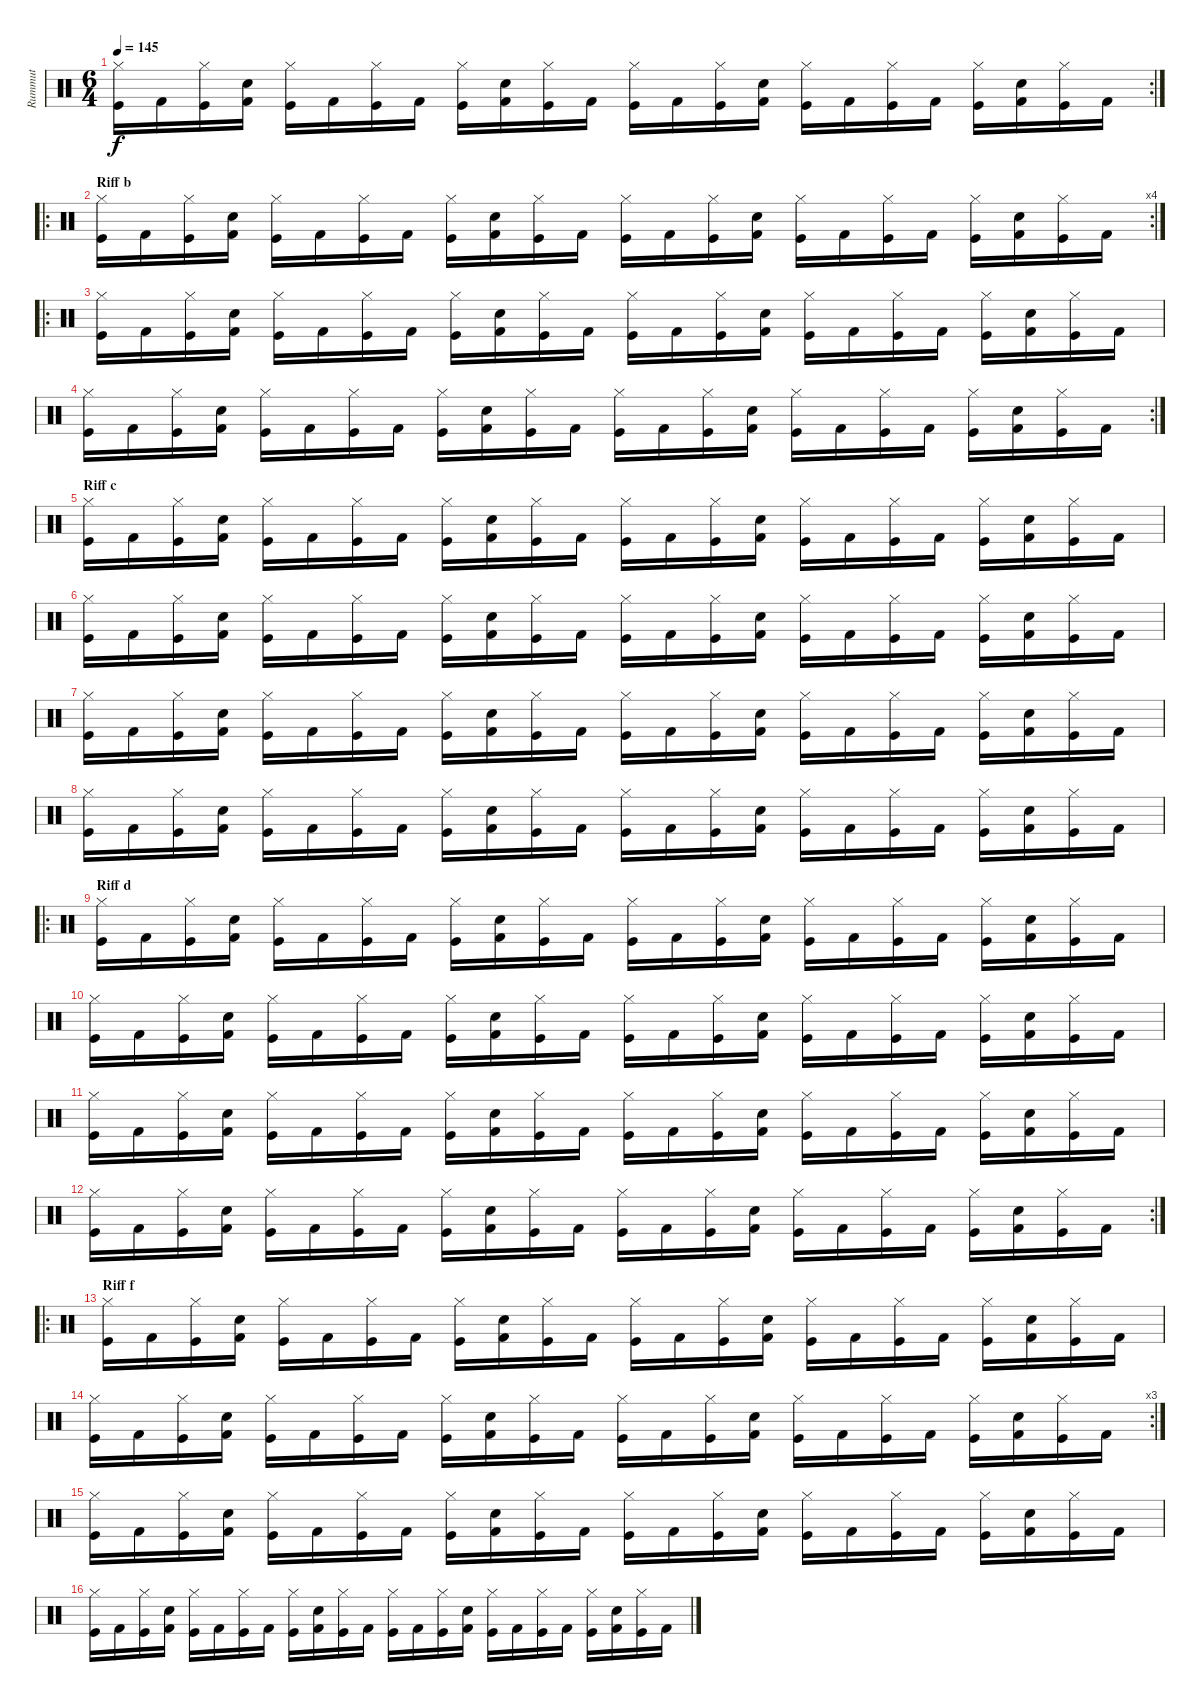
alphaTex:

\track ("Rummut" "Rummut") {instrument percussion}
\staff {score}
\articulation defaults
\rc 2
\ts (6 4)
\tempo 145
\clef neutral
\ks c
("Hi-Hat (closed)" "Kick (hit)").16{dy f} "Kick (hit) 2".16 ("Hi-Hat (closed)" "Kick (hit)").16 ("Snare (hit) 2" "Kick (hit) 2").16 ("Hi-Hat (closed)" "Kick (hit)").16 "Kick (hit) 2".16 ("Hi-Hat (closed)" "Kick (hit)").16 "Kick (hit) 2".16 ("Hi-Hat (closed)" "Kick (hit)").16 ("Snare (hit) 2" "Kick (hit) 2").16 ("Hi-Hat (closed)" "Kick (hit)").16 "Kick (hit) 2".16 ("Hi-Hat (closed)" "Kick (hit)").16 "Kick (hit) 2".16 ("Hi-Hat (closed)" "Kick (hit)").16 ("Snare (hit) 2" "Kick (hit) 2").16 ("Hi-Hat (closed)" "Kick (hit)").16 "Kick (hit) 2".16 ("Hi-Hat (closed)" "Kick (hit)").16 "Kick (hit) 2".16 ("Hi-Hat (closed)" "Kick (hit)").16 ("Snare (hit) 2" "Kick (hit) 2").16 ("Hi-Hat (closed)" "Kick (hit)").16 "Kick (hit) 2".16 |
\ro
\rc 4
\section ("" "Riff b")
("Hi-Hat (closed)" "Kick (hit)").16 "Kick (hit) 2".16 ("Hi-Hat (closed)" "Kick (hit)").16 ("Snare (hit) 2" "Kick (hit) 2").16 ("Hi-Hat (closed)" "Kick (hit)").16 "Kick (hit) 2".16 ("Hi-Hat (closed)" "Kick (hit)").16 "Kick (hit) 2".16 ("Hi-Hat (closed)" "Kick (hit)").16 ("Snare (hit) 2" "Kick (hit) 2").16 ("Hi-Hat (closed)" "Kick (hit)").16 "Kick (hit) 2".16 ("Hi-Hat (closed)" "Kick (hit)").16 "Kick (hit) 2".16 ("Hi-Hat (closed)" "Kick (hit)").16 ("Snare (hit) 2" "Kick (hit) 2").16 ("Hi-Hat (closed)" "Kick (hit)").16 "Kick (hit) 2".16 ("Hi-Hat (closed)" "Kick (hit)").16 "Kick (hit) 2".16 ("Hi-Hat (closed)" "Kick (hit)").16 ("Snare (hit) 2" "Kick (hit) 2").16 ("Hi-Hat (closed)" "Kick (hit)").16 "Kick (hit) 2".16 |
\ro
("Hi-Hat (closed)" "Kick (hit)").16 "Kick (hit) 2".16 ("Hi-Hat (closed)" "Kick (hit)").16 ("Snare (hit) 2" "Kick (hit) 2").16 ("Hi-Hat (closed)" "Kick (hit)").16 "Kick (hit) 2".16 ("Hi-Hat (closed)" "Kick (hit)").16 "Kick (hit) 2".16 ("Hi-Hat (closed)" "Kick (hit)").16 ("Snare (hit) 2" "Kick (hit) 2").16 ("Hi-Hat (closed)" "Kick (hit)").16 "Kick (hit) 2".16 ("Hi-Hat (closed)" "Kick (hit)").16 "Kick (hit) 2".16 ("Hi-Hat (closed)" "Kick (hit)").16 ("Snare (hit) 2" "Kick (hit) 2").16 ("Hi-Hat (closed)" "Kick (hit)").16 "Kick (hit) 2".16 ("Hi-Hat (closed)" "Kick (hit)").16 "Kick (hit) 2".16 ("Hi-Hat (closed)" "Kick (hit)").16 ("Snare (hit) 2" "Kick (hit) 2").16 ("Hi-Hat (closed)" "Kick (hit)").16 "Kick (hit) 2".16 |
\rc 2
("Hi-Hat (closed)" "Kick (hit)").16 "Kick (hit) 2".16 ("Hi-Hat (closed)" "Kick (hit)").16 ("Snare (hit) 2" "Kick (hit) 2").16 ("Hi-Hat (closed)" "Kick (hit)").16 "Kick (hit) 2".16 ("Hi-Hat (closed)" "Kick (hit)").16 "Kick (hit) 2".16 ("Hi-Hat (closed)" "Kick (hit)").16 ("Snare (hit) 2" "Kick (hit) 2").16 ("Hi-Hat (closed)" "Kick (hit)").16 "Kick (hit) 2".16 ("Hi-Hat (closed)" "Kick (hit)").16 "Kick (hit) 2".16 ("Hi-Hat (closed)" "Kick (hit)").16 ("Snare (hit) 2" "Kick (hit) 2").16 ("Hi-Hat (closed)" "Kick (hit)").16 "Kick (hit) 2".16 ("Hi-Hat (closed)" "Kick (hit)").16 "Kick (hit) 2".16 ("Hi-Hat (closed)" "Kick (hit)").16 ("Snare (hit) 2" "Kick (hit) 2").16 ("Hi-Hat (closed)" "Kick (hit)").16 "Kick (hit) 2".16 |
\section ("" "Riff c")
("Hi-Hat (closed)" "Kick (hit)").16 "Kick (hit) 2".16 ("Hi-Hat (closed)" "Kick (hit)").16 ("Snare (hit) 2" "Kick (hit) 2").16 ("Hi-Hat (closed)" "Kick (hit)").16 "Kick (hit) 2".16 ("Hi-Hat (closed)" "Kick (hit)").16 "Kick (hit) 2".16 ("Hi-Hat (closed)" "Kick (hit)").16 ("Snare (hit) 2" "Kick (hit) 2").16 ("Hi-Hat (closed)" "Kick (hit)").16 "Kick (hit) 2".16 ("Hi-Hat (closed)" "Kick (hit)").16 "Kick (hit) 2".16 ("Hi-Hat (closed)" "Kick (hit)").16 ("Snare (hit) 2" "Kick (hit) 2").16 ("Hi-Hat (closed)" "Kick (hit)").16 "Kick (hit) 2".16 ("Hi-Hat (closed)" "Kick (hit)").16 "Kick (hit) 2".16 ("Hi-Hat (closed)" "Kick (hit)").16 ("Snare (hit) 2" "Kick (hit) 2").16 ("Hi-Hat (closed)" "Kick (hit)").16 "Kick (hit) 2".16 |
("Hi-Hat (closed)" "Kick (hit)").16 "Kick (hit) 2".16 ("Hi-Hat (closed)" "Kick (hit)").16 ("Snare (hit) 2" "Kick (hit) 2").16 ("Hi-Hat (closed)" "Kick (hit)").16 "Kick (hit) 2".16 ("Hi-Hat (closed)" "Kick (hit)").16 "Kick (hit) 2".16 ("Hi-Hat (closed)" "Kick (hit)").16 ("Snare (hit) 2" "Kick (hit) 2").16 ("Hi-Hat (closed)" "Kick (hit)").16 "Kick (hit) 2".16 ("Hi-Hat (closed)" "Kick (hit)").16 "Kick (hit) 2".16 ("Hi-Hat (closed)" "Kick (hit)").16 ("Snare (hit) 2" "Kick (hit) 2").16 ("Hi-Hat (closed)" "Kick (hit)").16 "Kick (hit) 2".16 ("Hi-Hat (closed)" "Kick (hit)").16 "Kick (hit) 2".16 ("Hi-Hat (closed)" "Kick (hit)").16 ("Snare (hit) 2" "Kick (hit) 2").16 ("Hi-Hat (closed)" "Kick (hit)").16 "Kick (hit) 2".16 |
("Hi-Hat (closed)" "Kick (hit)").16 "Kick (hit) 2".16 ("Hi-Hat (closed)" "Kick (hit)").16 ("Snare (hit) 2" "Kick (hit) 2").16 ("Hi-Hat (closed)" "Kick (hit)").16 "Kick (hit) 2".16 ("Hi-Hat (closed)" "Kick (hit)").16 "Kick (hit) 2".16 ("Hi-Hat (closed)" "Kick (hit)").16 ("Snare (hit) 2" "Kick (hit) 2").16 ("Hi-Hat (closed)" "Kick (hit)").16 "Kick (hit) 2".16 ("Hi-Hat (closed)" "Kick (hit)").16 "Kick (hit) 2".16 ("Hi-Hat (closed)" "Kick (hit)").16 ("Snare (hit) 2" "Kick (hit) 2").16 ("Hi-Hat (closed)" "Kick (hit)").16 "Kick (hit) 2".16 ("Hi-Hat (closed)" "Kick (hit)").16 "Kick (hit) 2".16 ("Hi-Hat (closed)" "Kick (hit)").16 ("Snare (hit) 2" "Kick (hit) 2").16 ("Hi-Hat (closed)" "Kick (hit)").16 "Kick (hit) 2".16 |
("Hi-Hat (closed)" "Kick (hit)").16 "Kick (hit) 2".16 ("Hi-Hat (closed)" "Kick (hit)").16 ("Snare (hit) 2" "Kick (hit) 2").16 ("Hi-Hat (closed)" "Kick (hit)").16 "Kick (hit) 2".16 ("Hi-Hat (closed)" "Kick (hit)").16 "Kick (hit) 2".16 ("Hi-Hat (closed)" "Kick (hit)").16 ("Snare (hit) 2" "Kick (hit) 2").16 ("Hi-Hat (closed)" "Kick (hit)").16 "Kick (hit) 2".16 ("Hi-Hat (closed)" "Kick (hit)").16 "Kick (hit) 2".16 ("Hi-Hat (closed)" "Kick (hit)").16 ("Snare (hit) 2" "Kick (hit) 2").16 ("Hi-Hat (closed)" "Kick (hit)").16 "Kick (hit) 2".16 ("Hi-Hat (closed)" "Kick (hit)").16 "Kick (hit) 2".16 ("Hi-Hat (closed)" "Kick (hit)").16 ("Snare (hit) 2" "Kick (hit) 2").16 ("Hi-Hat (closed)" "Kick (hit)").16 "Kick (hit) 2".16 |
\ro
\section ("" "Riff d")
("Hi-Hat (closed)" "Kick (hit)").16 "Kick (hit) 2".16 ("Hi-Hat (closed)" "Kick (hit)").16 ("Snare (hit) 2" "Kick (hit) 2").16 ("Hi-Hat (closed)" "Kick (hit)").16 "Kick (hit) 2".16 ("Hi-Hat (closed)" "Kick (hit)").16 "Kick (hit) 2".16 ("Hi-Hat (closed)" "Kick (hit)").16 ("Snare (hit) 2" "Kick (hit) 2").16 ("Hi-Hat (closed)" "Kick (hit)").16 "Kick (hit) 2".16 ("Hi-Hat (closed)" "Kick (hit)").16 "Kick (hit) 2".16 ("Hi-Hat (closed)" "Kick (hit)").16 ("Snare (hit) 2" "Kick (hit) 2").16 ("Hi-Hat (closed)" "Kick (hit)").16 "Kick (hit) 2".16 ("Hi-Hat (closed)" "Kick (hit)").16 "Kick (hit) 2".16 ("Hi-Hat (closed)" "Kick (hit)").16 ("Snare (hit) 2" "Kick (hit) 2").16 ("Hi-Hat (closed)" "Kick (hit)").16 "Kick (hit) 2".16 |
("Hi-Hat (closed)" "Kick (hit)").16 "Kick (hit) 2".16 ("Hi-Hat (closed)" "Kick (hit)").16 ("Snare (hit) 2" "Kick (hit) 2").16 ("Hi-Hat (closed)" "Kick (hit)").16 "Kick (hit) 2".16 ("Hi-Hat (closed)" "Kick (hit)").16 "Kick (hit) 2".16 ("Hi-Hat (closed)" "Kick (hit)").16 ("Snare (hit) 2" "Kick (hit) 2").16 ("Hi-Hat (closed)" "Kick (hit)").16 "Kick (hit) 2".16 ("Hi-Hat (closed)" "Kick (hit)").16 "Kick (hit) 2".16 ("Hi-Hat (closed)" "Kick (hit)").16 ("Snare (hit) 2" "Kick (hit) 2").16 ("Hi-Hat (closed)" "Kick (hit)").16 "Kick (hit) 2".16 ("Hi-Hat (closed)" "Kick (hit)").16 "Kick (hit) 2".16 ("Hi-Hat (closed)" "Kick (hit)").16 ("Snare (hit) 2" "Kick (hit) 2").16 ("Hi-Hat (closed)" "Kick (hit)").16 "Kick (hit) 2".16 |
("Hi-Hat (closed)" "Kick (hit)").16 "Kick (hit) 2".16 ("Hi-Hat (closed)" "Kick (hit)").16 ("Snare (hit) 2" "Kick (hit) 2").16 ("Hi-Hat (closed)" "Kick (hit)").16 "Kick (hit) 2".16 ("Hi-Hat (closed)" "Kick (hit)").16 "Kick (hit) 2".16 ("Hi-Hat (closed)" "Kick (hit)").16 ("Snare (hit) 2" "Kick (hit) 2").16 ("Hi-Hat (closed)" "Kick (hit)").16 "Kick (hit) 2".16 ("Hi-Hat (closed)" "Kick (hit)").16 "Kick (hit) 2".16 ("Hi-Hat (closed)" "Kick (hit)").16 ("Snare (hit) 2" "Kick (hit) 2").16 ("Hi-Hat (closed)" "Kick (hit)").16 "Kick (hit) 2".16 ("Hi-Hat (closed)" "Kick (hit)").16 "Kick (hit) 2".16 ("Hi-Hat (closed)" "Kick (hit)").16 ("Snare (hit) 2" "Kick (hit) 2").16 ("Hi-Hat (closed)" "Kick (hit)").16 "Kick (hit) 2".16 |
\rc 2
("Hi-Hat (closed)" "Kick (hit)").16 "Kick (hit) 2".16 ("Hi-Hat (closed)" "Kick (hit)").16 ("Snare (hit) 2" "Kick (hit) 2").16 ("Hi-Hat (closed)" "Kick (hit)").16 "Kick (hit) 2".16 ("Hi-Hat (closed)" "Kick (hit)").16 "Kick (hit) 2".16 ("Hi-Hat (closed)" "Kick (hit)").16 ("Snare (hit) 2" "Kick (hit) 2").16 ("Hi-Hat (closed)" "Kick (hit)").16 "Kick (hit) 2".16 ("Hi-Hat (closed)" "Kick (hit)").16 "Kick (hit) 2".16 ("Hi-Hat (closed)" "Kick (hit)").16 ("Snare (hit) 2" "Kick (hit) 2").16 ("Hi-Hat (closed)" "Kick (hit)").16 "Kick (hit) 2".16 ("Hi-Hat (closed)" "Kick (hit)").16 "Kick (hit) 2".16 ("Hi-Hat (closed)" "Kick (hit)").16 ("Snare (hit) 2" "Kick (hit) 2").16 ("Hi-Hat (closed)" "Kick (hit)").16 "Kick (hit) 2".16 |
\ro
\section ("" "Riff f")
("Hi-Hat (closed)" "Kick (hit)").16 "Kick (hit) 2".16 ("Hi-Hat (closed)" "Kick (hit)").16 ("Snare (hit) 2" "Kick (hit) 2").16 ("Hi-Hat (closed)" "Kick (hit)").16 "Kick (hit) 2".16 ("Hi-Hat (closed)" "Kick (hit)").16 "Kick (hit) 2".16 ("Hi-Hat (closed)" "Kick (hit)").16 ("Snare (hit) 2" "Kick (hit) 2").16 ("Hi-Hat (closed)" "Kick (hit)").16 "Kick (hit) 2".16 ("Hi-Hat (closed)" "Kick (hit)").16 "Kick (hit) 2".16 ("Hi-Hat (closed)" "Kick (hit)").16 ("Snare (hit) 2" "Kick (hit) 2").16 ("Hi-Hat (closed)" "Kick (hit)").16 "Kick (hit) 2".16 ("Hi-Hat (closed)" "Kick (hit)").16 "Kick (hit) 2".16 ("Hi-Hat (closed)" "Kick (hit)").16 ("Snare (hit) 2" "Kick (hit) 2").16 ("Hi-Hat (closed)" "Kick (hit)").16 "Kick (hit) 2".16 |
\rc 3
("Hi-Hat (closed)" "Kick (hit)").16 "Kick (hit) 2".16 ("Hi-Hat (closed)" "Kick (hit)").16 ("Snare (hit) 2" "Kick (hit) 2").16 ("Hi-Hat (closed)" "Kick (hit)").16 "Kick (hit) 2".16 ("Hi-Hat (closed)" "Kick (hit)").16 "Kick (hit) 2".16 ("Hi-Hat (closed)" "Kick (hit)").16 ("Snare (hit) 2" "Kick (hit) 2").16 ("Hi-Hat (closed)" "Kick (hit)").16 "Kick (hit) 2".16 ("Hi-Hat (closed)" "Kick (hit)").16 "Kick (hit) 2".16 ("Hi-Hat (closed)" "Kick (hit)").16 ("Snare (hit) 2" "Kick (hit) 2").16 ("Hi-Hat (closed)" "Kick (hit)").16 "Kick (hit) 2".16 ("Hi-Hat (closed)" "Kick (hit)").16 "Kick (hit) 2".16 ("Hi-Hat (closed)" "Kick (hit)").16 ("Snare (hit) 2" "Kick (hit) 2").16 ("Hi-Hat (closed)" "Kick (hit)").16 "Kick (hit) 2".16 |
("Hi-Hat (closed)" "Kick (hit)").16 "Kick (hit) 2".16 ("Hi-Hat (closed)" "Kick (hit)").16 ("Snare (hit) 2" "Kick (hit) 2").16 ("Hi-Hat (closed)" "Kick (hit)").16 "Kick (hit) 2".16 ("Hi-Hat (closed)" "Kick (hit)").16 "Kick (hit) 2".16 ("Hi-Hat (closed)" "Kick (hit)").16 ("Snare (hit) 2" "Kick (hit) 2").16 ("Hi-Hat (closed)" "Kick (hit)").16 "Kick (hit) 2".16 ("Hi-Hat (closed)" "Kick (hit)").16 "Kick (hit) 2".16 ("Hi-Hat (closed)" "Kick (hit)").16 ("Snare (hit) 2" "Kick (hit) 2").16 ("Hi-Hat (closed)" "Kick (hit)").16 "Kick (hit) 2".16 ("Hi-Hat (closed)" "Kick (hit)").16 "Kick (hit) 2".16 ("Hi-Hat (closed)" "Kick (hit)").16 ("Snare (hit) 2" "Kick (hit) 2").16 ("Hi-Hat (closed)" "Kick (hit)").16 "Kick (hit) 2".16 |
("Hi-Hat (closed)" "Kick (hit)").16 "Kick (hit) 2".16 ("Hi-Hat (closed)" "Kick (hit)").16 ("Snare (hit) 2" "Kick (hit) 2").16 ("Hi-Hat (closed)" "Kick (hit)").16 "Kick (hit) 2".16 ("Hi-Hat (closed)" "Kick (hit)").16 "Kick (hit) 2".16 ("Hi-Hat (closed)" "Kick (hit)").16 ("Snare (hit) 2" "Kick (hit) 2").16 ("Hi-Hat (closed)" "Kick (hit)").16 "Kick (hit) 2".16 ("Hi-Hat (closed)" "Kick (hit)").16 "Kick (hit) 2".16 ("Hi-Hat (closed)" "Kick (hit)").16 ("Snare (hit) 2" "Kick (hit) 2").16 ("Hi-Hat (closed)" "Kick (hit)").16 "Kick (hit) 2".16 ("Hi-Hat (closed)" "Kick (hit)").16 "Kick (hit) 2".16 ("Hi-Hat (closed)" "Kick (hit)").16 ("Snare (hit) 2" "Kick (hit) 2").16 ("Hi-Hat (closed)" "Kick (hit)").16 "Kick (hit) 2".16
